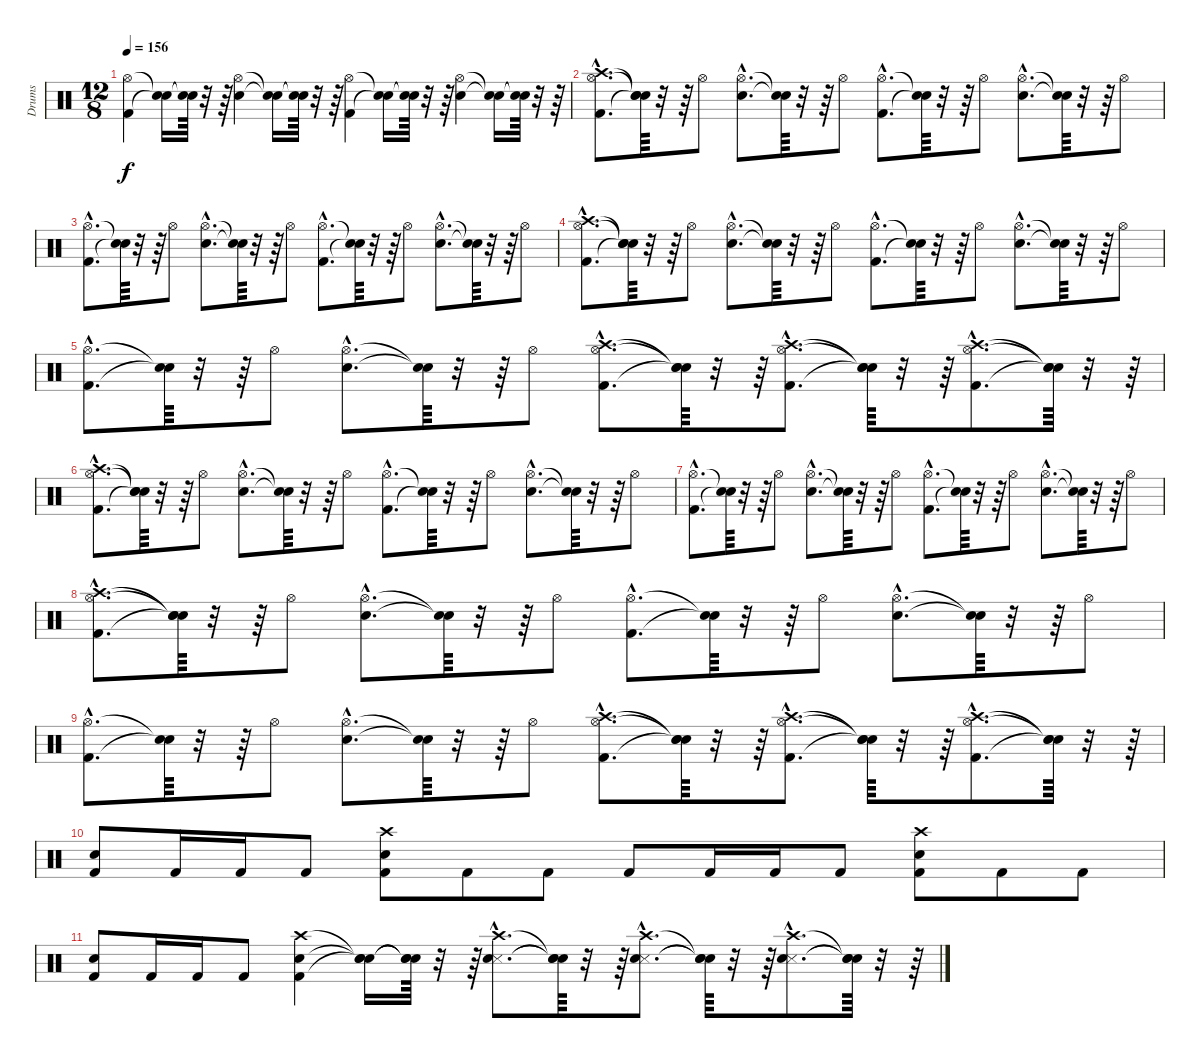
\track ("Drums" "Drums") {instrument percussion}
\staff {score}
\articulation defaults
\ts (12 8)
\tempo 156
\clef neutral
\ks c
("Kick (hit) 2" "Hi-Hat (open)").4{dy f} ("Snare (hit)"{t} "Snare (hit)"{t}).16 ("Snare (hit)"{t} "Snare (hit)"{t}).64 r.32 r.64 ("Snare (hit) 2" "Hi-Hat (open)").4 ("Snare (hit)"{t} "Snare (hit)"{t}).16 ("Snare (hit)"{t} "Snare (hit)"{t}).64 r.32 r.64 ("Kick (hit) 2" "Hi-Hat (open)").4 ("Snare (hit)"{t} "Snare (hit)"{t}).16 ("Snare (hit)"{t} "Snare (hit)"{t}).64 r.32 r.64 ("Snare (hit) 2" "Hi-Hat (open)").4 ("Snare (hit)"{t} "Snare (hit)"{t}).16 ("Snare (hit)"{t} "Snare (hit)"{t}).64 r.32 r.64 |
("Kick (hit) 2"{hac} "Hi-Hat (open)"{hac} "Crash high (hit)"{hac}).8{d} ("Snare (hit)"{t} "Snare (hit)"{t} "Snare (hit)"{t}).64 r.32 r.64 "Hi-Hat (open)".8 ("Snare (hit) 2"{hac} "Hi-Hat (open)"{hac}).8{d} ("Snare (hit)"{t} "Snare (hit)"{t}).64 r.32 r.64 "Hi-Hat (open)".8 ("Kick (hit) 2"{hac} "Hi-Hat (open)"{hac}).8{d} ("Snare (hit)"{t} "Snare (hit)"{t}).64 r.32 r.64 "Hi-Hat (open)".8 ("Snare (hit) 2"{hac} "Hi-Hat (open)"{hac}).8{d} ("Snare (hit)"{t} "Snare (hit)"{t}).64 r.32 r.64 "Hi-Hat (open)".8 |
("Kick (hit) 2"{hac} "Hi-Hat (open)"{hac}).8{d} ("Snare (hit)"{t} "Snare (hit)"{t}).64 r.32 r.64 "Hi-Hat (open)".8 ("Snare (hit) 2"{hac} "Hi-Hat (open)"{hac}).8{d} ("Snare (hit)"{t} "Snare (hit)"{t}).64 r.32 r.64 "Hi-Hat (open)".8 ("Kick (hit) 2"{hac} "Hi-Hat (open)"{hac}).8{d} ("Snare (hit)"{t} "Snare (hit)"{t}).64 r.32 r.64 "Hi-Hat (open)".8 ("Snare (hit) 2"{hac} "Hi-Hat (open)"{hac}).8{d} ("Snare (hit)"{t} "Snare (hit)"{t}).64 r.32 r.64 "Hi-Hat (open)".8 |
("Kick (hit) 2"{hac} "Hi-Hat (open)"{hac} "Crash high (hit)"{hac}).8{d} ("Snare (hit)"{t} "Snare (hit)"{t} "Snare (hit)"{t}).64 r.32 r.64 "Hi-Hat (open)".8 ("Snare (hit) 2"{hac} "Hi-Hat (open)"{hac}).8{d} ("Snare (hit)"{t} "Snare (hit)"{t}).64 r.32 r.64 "Hi-Hat (open)".8 ("Kick (hit) 2"{hac} "Hi-Hat (open)"{hac}).8{d} ("Snare (hit)"{t} "Snare (hit)"{t}).64 r.32 r.64 "Hi-Hat (open)".8 ("Snare (hit) 2"{hac} "Hi-Hat (open)"{hac}).8{d} ("Snare (hit)"{t} "Snare (hit)"{t}).64 r.32 r.64 "Hi-Hat (open)".8 |
("Kick (hit) 2"{hac} "Hi-Hat (open)"{hac}).8{d} ("Snare (hit)"{t} "Snare (hit)"{t}).64 r.32 r.64 "Hi-Hat (open)".8 ("Snare (hit) 2"{hac} "Hi-Hat (open)"{hac}).8{d} ("Snare (hit)"{t} "Snare (hit)"{t}).64 r.32 r.64 "Hi-Hat (open)".8 ("Kick (hit) 2"{hac} "Hi-Hat (open)"{hac} "Crash high (hit)"{hac}).8{d} ("Snare (hit)"{t} "Snare (hit)"{t} "Snare (hit)"{t}).64 r.32 r.64 ("Kick (hit) 2"{hac} "Hi-Hat (open)"{hac} "Crash high (hit)"{hac}).8{d} ("Snare (hit)"{t} "Snare (hit)"{t} "Snare (hit)"{t}).64 r.32 r.64 ("Kick (hit) 2"{hac} "Hi-Hat (open)"{hac} "Crash high (hit)"{hac}).8{d} ("Snare (hit)"{t} "Snare (hit)"{t} "Snare (hit)"{t}).64 r.32 r.64 |
("Kick (hit) 2"{hac} "Hi-Hat (open)"{hac} "Crash high (hit)"{hac}).8{d} ("Snare (hit)"{t} "Snare (hit)"{t} "Snare (hit)"{t}).64 r.32 r.64 "Hi-Hat (open)".8 ("Snare (hit) 2"{hac} "Hi-Hat (open)"{hac}).8{d} ("Snare (hit)"{t} "Snare (hit)"{t}).64 r.32 r.64 "Hi-Hat (open)".8 ("Kick (hit) 2"{hac} "Hi-Hat (open)"{hac}).8{d} ("Snare (hit)"{t} "Snare (hit)"{t}).64 r.32 r.64 "Hi-Hat (open)".8 ("Snare (hit) 2"{hac} "Hi-Hat (open)"{hac}).8{d} ("Snare (hit)"{t} "Snare (hit)"{t}).64 r.32 r.64 "Hi-Hat (open)".8 |
("Kick (hit) 2"{hac} "Hi-Hat (open)"{hac}).8{d} ("Snare (hit)"{t} "Snare (hit)"{t}).64 r.32 r.64 "Hi-Hat (open)".8 ("Snare (hit) 2"{hac} "Hi-Hat (open)"{hac}).8{d} ("Snare (hit)"{t} "Snare (hit)"{t}).64 r.32 r.64 "Hi-Hat (open)".8 ("Kick (hit) 2"{hac} "Hi-Hat (open)"{hac}).8{d} ("Snare (hit)"{t} "Snare (hit)"{t}).64 r.32 r.64 "Hi-Hat (open)".8 ("Snare (hit) 2"{hac} "Hi-Hat (open)"{hac}).8{d} ("Snare (hit)"{t} "Snare (hit)"{t}).64 r.32 r.64 "Hi-Hat (open)".8 |
("Kick (hit) 2"{hac} "Hi-Hat (open)"{hac} "Crash high (hit)"{hac}).8{d} ("Snare (hit)"{t} "Snare (hit)"{t} "Snare (hit)"{t}).64 r.32 r.64 "Hi-Hat (open)".8 ("Snare (hit) 2"{hac} "Hi-Hat (open)"{hac}).8{d} ("Snare (hit)"{t} "Snare (hit)"{t}).64 r.32 r.64 "Hi-Hat (open)".8 ("Kick (hit) 2"{hac} "Hi-Hat (open)"{hac}).8{d} ("Snare (hit)"{t} "Snare (hit)"{t}).64 r.32 r.64 "Hi-Hat (open)".8 ("Snare (hit) 2"{hac} "Hi-Hat (open)"{hac}).8{d} ("Snare (hit)"{t} "Snare (hit)"{t}).64 r.32 r.64 "Hi-Hat (open)".8 |
("Kick (hit) 2"{hac} "Hi-Hat (open)"{hac}).8{d} ("Snare (hit)"{t} "Snare (hit)"{t}).64 r.32 r.64 "Hi-Hat (open)".8 ("Snare (hit) 2"{hac} "Hi-Hat (open)"{hac}).8{d} ("Snare (hit)"{t} "Snare (hit)"{t}).64 r.32 r.64 "Hi-Hat (open)".8 ("Kick (hit) 2"{hac} "Hi-Hat (open)"{hac} "Crash high (hit)"{hac}).8{d} ("Snare (hit)"{t} "Snare (hit)"{t} "Snare (hit)"{t}).64 r.32 r.64 ("Kick (hit) 2"{hac} "Hi-Hat (open)"{hac} "Crash high (hit)"{hac}).8{d} ("Snare (hit)"{t} "Snare (hit)"{t} "Snare (hit)"{t}).64 r.32 r.64 ("Kick (hit) 2"{hac} "Hi-Hat (open)"{hac} "Crash high (hit)"{hac}).8{d} ("Snare (hit)"{t} "Snare (hit)"{t} "Snare (hit)"{t}).64 r.32 r.64 |
("Kick (hit) 2" "Snare (hit) 2").8 "Kick (hit) 2".16 "Kick (hit) 2".16 "Kick (hit) 2".8 ("Kick (hit) 2" "Snare (hit) 2" "Crash high (hit)").8 "Kick (hit) 2".8 "Kick (hit) 2".8 "Kick (hit) 2".8 "Kick (hit) 2".16 "Kick (hit) 2".16 "Kick (hit) 2".8 ("Kick (hit) 2" "Snare (hit) 2" "Crash high (hit)").8 "Kick (hit) 2".8 "Kick (hit) 2".8 |
("Kick (hit) 2" "Snare (hit) 2").8 "Kick (hit) 2".16 "Kick (hit) 2".16 "Kick (hit) 2".8 ("Kick (hit) 2" "Snare (hit) 2" "Crash high (hit)").4 ("Snare (hit)"{t} "Snare (hit)"{t} "Snare (hit)"{t}).16 ("Snare (hit)"{t} "Snare (hit)"{t} "Snare (hit)"{t}).64 r.32 r.64 ("Snare (side stick) 3"{hac} "Snare (hit) 2"{hac} "Crash high (hit)"{hac}).8{d} ("Snare (hit)"{t} "Snare (hit)"{t} "Snare (hit)"{t}).64 r.32 r.64 ("Snare (side stick) 3"{hac} "Snare (hit) 2"{hac} "Crash high (hit)"{hac}).8{d} ("Snare (hit)"{t} "Snare (hit)"{t} "Snare (hit)"{t}).64 r.32 r.64 ("Snare (side stick) 3"{hac} "Snare (hit) 2"{hac} "Crash high (hit)"{hac}).8{d} ("Snare (hit)"{t} "Snare (hit)"{t} "Snare (hit)"{t}).64 r.32 r.64
